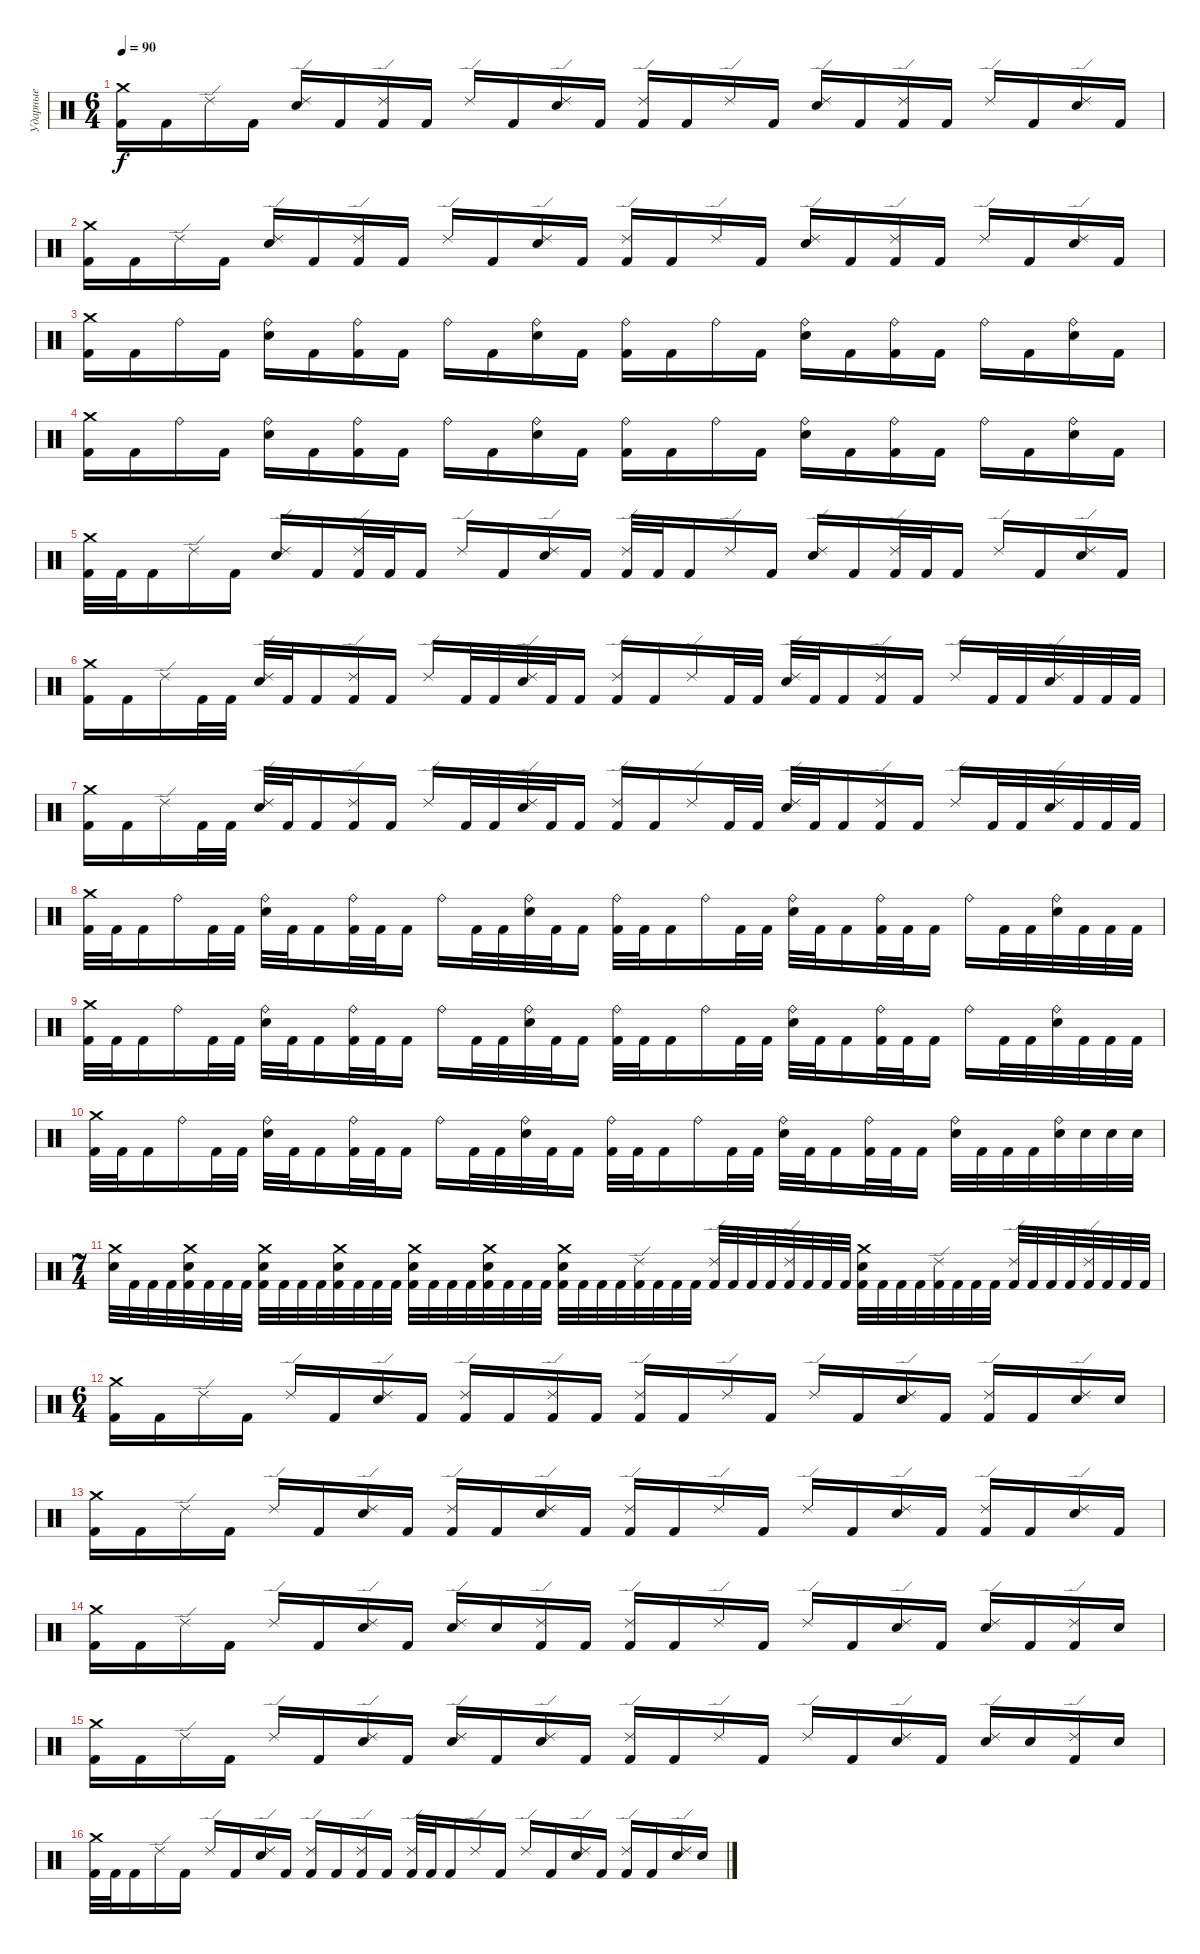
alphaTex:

\track ("Ударные" "Ударные") {instrument percussion}
\staff {score}
\articulation defaults
\ts (6 4)
\tempo 90
\clef neutral
\ks c
("Crash medium (hit)" "Kick (hit) 2").16{dy f} "Kick (hit) 2".16 "Ride (edge) 2".16 "Kick (hit) 2".16 ("Ride (edge) 2" "Electric Snare (hit)").16 "Kick (hit) 2".16 ("Ride (edge) 2" "Kick (hit) 2").16 "Kick (hit) 2".16 "Ride (edge) 2".16 "Kick (hit) 2".16 ("Ride (edge) 2" "Electric Snare (hit)").16 "Kick (hit) 2".16 ("Ride (edge) 2" "Kick (hit) 2").16 "Kick (hit) 2".16 "Ride (edge) 2".16 "Kick (hit) 2".16 ("Ride (edge) 2" "Electric Snare (hit)").16 "Kick (hit) 2".16 ("Ride (edge) 2" "Kick (hit) 2").16 "Kick (hit) 2".16 "Ride (edge) 2".16 "Kick (hit) 2".16 ("Ride (edge) 2" "Electric Snare (hit)").16 "Kick (hit) 2".16 |
("Crash medium (hit)" "Kick (hit) 2").16 "Kick (hit) 2".16 "Ride (edge) 2".16 "Kick (hit) 2".16 ("Ride (edge) 2" "Electric Snare (hit)").16 "Kick (hit) 2".16 ("Ride (edge) 2" "Kick (hit) 2").16 "Kick (hit) 2".16 "Ride (edge) 2".16 "Kick (hit) 2".16 ("Ride (edge) 2" "Electric Snare (hit)").16 "Kick (hit) 2".16 ("Ride (edge) 2" "Kick (hit) 2").16 "Kick (hit) 2".16 "Ride (edge) 2".16 "Kick (hit) 2".16 ("Ride (edge) 2" "Electric Snare (hit)").16 "Kick (hit) 2".16 ("Ride (edge) 2" "Kick (hit) 2").16 "Kick (hit) 2".16 "Ride (edge) 2".16 "Kick (hit) 2".16 ("Ride (edge) 2" "Electric Snare (hit)").16 "Kick (hit) 2".16 |
("Crash medium (hit)" "Kick (hit) 2").16 "Kick (hit) 2".16 "Ride (bell)".16 "Kick (hit) 2".16 ("Electric Snare (hit)" "Ride (bell)").16 "Kick (hit) 2".16 ("Kick (hit) 2" "Ride (bell)").16 "Kick (hit) 2".16 "Ride (bell)".16 "Kick (hit) 2".16 ("Electric Snare (hit)" "Ride (bell)").16 "Kick (hit) 2".16 ("Ride (bell)" "Kick (hit) 2").16 "Kick (hit) 2".16 "Ride (bell)".16 "Kick (hit) 2".16 ("Ride (bell)" "Electric Snare (hit)").16 "Kick (hit) 2".16 ("Kick (hit) 2" "Ride (bell)").16 "Kick (hit) 2".16 "Ride (bell)".16 "Kick (hit) 2".16 ("Electric Snare (hit)" "Ride (bell)").16 "Kick (hit) 2".16 |
("Crash medium (hit)" "Kick (hit) 2").16 "Kick (hit) 2".16 "Ride (bell)".16 "Kick (hit) 2".16 ("Electric Snare (hit)" "Ride (bell)").16 "Kick (hit) 2".16 ("Kick (hit) 2" "Ride (bell)").16 "Kick (hit) 2".16 "Ride (bell)".16 "Kick (hit) 2".16 ("Electric Snare (hit)" "Ride (bell)").16 "Kick (hit) 2".16 ("Ride (bell)" "Kick (hit) 2").16 "Kick (hit) 2".16 "Ride (bell)".16 "Kick (hit) 2".16 ("Ride (bell)" "Electric Snare (hit)").16 "Kick (hit) 2".16 ("Kick (hit) 2" "Ride (bell)").16 "Kick (hit) 2".16 "Ride (bell)".16 "Kick (hit) 2".16 ("Electric Snare (hit)" "Ride (bell)").16 "Kick (hit) 2".16 |
("Crash medium (hit)" "Kick (hit) 2").32 "Kick (hit) 2".32 "Kick (hit) 2".16 "Ride (edge) 2".16 "Kick (hit) 2".16 ("Ride (edge) 2" "Electric Snare (hit)").16 "Kick (hit) 2".16 ("Ride (edge) 2" "Kick (hit) 2").32 "Kick (hit) 2".32 "Kick (hit) 2".16 "Ride (edge) 2".16 "Kick (hit) 2".16 ("Ride (edge) 2" "Electric Snare (hit)").16 "Kick (hit) 2".16 ("Ride (edge) 2" "Kick (hit) 2").32 "Kick (hit) 2".32 "Kick (hit) 2".16 "Ride (edge) 2".16 "Kick (hit) 2".16 ("Ride (edge) 2" "Electric Snare (hit)").16 "Kick (hit) 2".16 ("Ride (edge) 2" "Kick (hit) 2").32 "Kick (hit) 2".32 "Kick (hit) 2".16 "Ride (edge) 2".16 "Kick (hit) 2".16 ("Ride (edge) 2" "Electric Snare (hit)").16 "Kick (hit) 2".16 |
("Crash medium (hit)" "Kick (hit) 2").16 "Kick (hit) 2".16 "Ride (edge) 2".16 "Kick (hit) 2".32 "Kick (hit) 2".32 ("Ride (edge) 2" "Electric Snare (hit)").32 "Kick (hit) 2".32 "Kick (hit) 2".16 ("Ride (edge) 2" "Kick (hit) 2").16 "Kick (hit) 2".16 "Ride (edge) 2".16 "Kick (hit) 2".32 "Kick (hit) 2".32 ("Ride (edge) 2" "Electric Snare (hit)").32 "Kick (hit) 2".32 "Kick (hit) 2".16 ("Ride (edge) 2" "Kick (hit) 2").16 "Kick (hit) 2".16 "Ride (edge) 2".16 "Kick (hit) 2".32 "Kick (hit) 2".32 ("Ride (edge) 2" "Electric Snare (hit)").32 "Kick (hit) 2".32 "Kick (hit) 2".16 ("Ride (edge) 2" "Kick (hit) 2").16 "Kick (hit) 2".16 "Ride (edge) 2".16 "Kick (hit) 2".32 "Kick (hit) 2".32 ("Ride (edge) 2" "Electric Snare (hit)").32 "Kick (hit) 2".32 "Kick (hit) 2".32 "Kick (hit) 2".32 |
("Crash medium (hit)" "Kick (hit) 2").16 "Kick (hit) 2".16 "Ride (edge) 2".16 "Kick (hit) 2".32 "Kick (hit) 2".32 ("Ride (edge) 2" "Electric Snare (hit)").32 "Kick (hit) 2".32 "Kick (hit) 2".16 ("Ride (edge) 2" "Kick (hit) 2").16 "Kick (hit) 2".16 "Ride (edge) 2".16 "Kick (hit) 2".32 "Kick (hit) 2".32 ("Ride (edge) 2" "Electric Snare (hit)").32 "Kick (hit) 2".32 "Kick (hit) 2".16 ("Ride (edge) 2" "Kick (hit) 2").16 "Kick (hit) 2".16 "Ride (edge) 2".16 "Kick (hit) 2".32 "Kick (hit) 2".32 ("Ride (edge) 2" "Electric Snare (hit)").32 "Kick (hit) 2".32 "Kick (hit) 2".16 ("Ride (edge) 2" "Kick (hit) 2").16 "Kick (hit) 2".16 "Ride (edge) 2".16 "Kick (hit) 2".32 "Kick (hit) 2".32 ("Ride (edge) 2" "Electric Snare (hit)").32 "Kick (hit) 2".32 "Kick (hit) 2".32 "Kick (hit) 2".32 |
("Crash medium (hit)" "Kick (hit) 2").32 "Kick (hit) 2".32 "Kick (hit) 2".16 "Ride (bell)".16 "Kick (hit) 2".32 "Kick (hit) 2".32 ("Electric Snare (hit)" "Ride (bell)").32 "Kick (hit) 2".32 "Kick (hit) 2".16 ("Kick (hit) 2" "Ride (bell)").32 "Kick (hit) 2".32 "Kick (hit) 2".16 "Ride (bell)".16 "Kick (hit) 2".32 "Kick (hit) 2".32 ("Electric Snare (hit)" "Ride (bell)").32 "Kick (hit) 2".32 "Kick (hit) 2".16 ("Ride (bell)" "Kick (hit) 2").32 "Kick (hit) 2".32 "Kick (hit) 2".16 "Ride (bell)".16 "Kick (hit) 2".32 "Kick (hit) 2".32 ("Ride (bell)" "Electric Snare (hit)").32 "Kick (hit) 2".32 "Kick (hit) 2".16 ("Kick (hit) 2" "Ride (bell)").32 "Kick (hit) 2".32 "Kick (hit) 2".16 "Ride (bell)".16 "Kick (hit) 2".32 "Kick (hit) 2".32 ("Electric Snare (hit)" "Ride (bell)").32 "Kick (hit) 2".32 "Kick (hit) 2".32 "Kick (hit) 2".32 |
("Crash medium (hit)" "Kick (hit) 2").32 "Kick (hit) 2".32 "Kick (hit) 2".16 "Ride (bell)".16 "Kick (hit) 2".32 "Kick (hit) 2".32 ("Electric Snare (hit)" "Ride (bell)").32 "Kick (hit) 2".32 "Kick (hit) 2".16 ("Kick (hit) 2" "Ride (bell)").32 "Kick (hit) 2".32 "Kick (hit) 2".16 "Ride (bell)".16 "Kick (hit) 2".32 "Kick (hit) 2".32 ("Electric Snare (hit)" "Ride (bell)").32 "Kick (hit) 2".32 "Kick (hit) 2".16 ("Ride (bell)" "Kick (hit) 2").32 "Kick (hit) 2".32 "Kick (hit) 2".16 "Ride (bell)".16 "Kick (hit) 2".32 "Kick (hit) 2".32 ("Ride (bell)" "Electric Snare (hit)").32 "Kick (hit) 2".32 "Kick (hit) 2".16 ("Kick (hit) 2" "Ride (bell)").32 "Kick (hit) 2".32 "Kick (hit) 2".16 "Ride (bell)".16 "Kick (hit) 2".32 "Kick (hit) 2".32 ("Electric Snare (hit)" "Ride (bell)").32 "Kick (hit) 2".32 "Kick (hit) 2".32 "Kick (hit) 2".32 |
("Crash medium (hit)" "Kick (hit) 2").32 "Kick (hit) 2".32 "Kick (hit) 2".16 "Ride (bell)".16 "Kick (hit) 2".32 "Kick (hit) 2".32 ("Electric Snare (hit)" "Ride (bell)").32 "Kick (hit) 2".32 "Kick (hit) 2".16 ("Kick (hit) 2" "Ride (bell)").32 "Kick (hit) 2".32 "Kick (hit) 2".16 "Ride (bell)".16 "Kick (hit) 2".32 "Kick (hit) 2".32 ("Electric Snare (hit)" "Ride (bell)").32 "Kick (hit) 2".32 "Kick (hit) 2".16 ("Ride (bell)" "Kick (hit) 2").32 "Kick (hit) 2".32 "Kick (hit) 2".16 "Ride (bell)".16 "Kick (hit) 2".32 "Kick (hit) 2".32 ("Ride (bell)" "Electric Snare (hit)").32 "Kick (hit) 2".32 "Kick (hit) 2".16 ("Kick (hit) 2" "Ride (bell)").32 "Kick (hit) 2".32 "Kick (hit) 2".16 ("Electric Snare (hit)" "Ride (bell)").32 "Kick (hit) 2".32 "Kick (hit) 2".32 "Kick (hit) 2".32 ("Electric Snare (hit)" "Ride (bell)").32 "Electric Snare (hit)".32 "Electric Snare (hit)".32 "Electric Snare (hit)".32 |
\ts (7 4)
("Crash medium (hit)" "Electric Snare (hit)").32 "Kick (hit) 2".32 "Kick (hit) 2".32 "Kick (hit) 2".32 ("Kick (hit) 2" "Electric Snare (hit)" "Crash medium (hit)").32 "Kick (hit) 2".32 "Kick (hit) 2".32 "Kick (hit) 2".32 ("Kick (hit) 2" "Crash medium (hit)" "Electric Snare (hit)").32 "Kick (hit) 2".32 "Kick (hit) 2".32 "Kick (hit) 2".32 ("Kick (hit) 2" "Electric Snare (hit)" "Crash medium (hit)").32 "Kick (hit) 2".32 "Kick (hit) 2".32 "Kick (hit) 2".32 ("Kick (hit) 2" "Crash medium (hit)" "Electric Snare (hit)").32 "Kick (hit) 2".32 "Kick (hit) 2".32 "Kick (hit) 2".32 ("Kick (hit) 2" "Electric Snare (hit)" "Crash medium (hit)").32 "Kick (hit) 2".32 "Kick (hit) 2".32 "Kick (hit) 2".32 ("Kick (hit) 2" "Crash medium (hit)" "Electric Snare (hit)").32 "Kick (hit) 2".32 "Kick (hit) 2".32 "Kick (hit) 2".32 ("Ride (edge) 2" "Kick (hit) 2").32 "Kick (hit) 2".32 "Kick (hit) 2".32 "Kick (hit) 2".32 ("Ride (edge) 2" "Kick (hit) 2").32 "Kick (hit) 2".32 "Kick (hit) 2".32 "Kick (hit) 2".32 ("Ride (edge) 2" "Kick (hit) 2").32 "Kick (hit) 2".32 "Kick (hit) 2".32 "Kick (hit) 2".32 ("Kick (hit) 2" "Crash medium (hit)" "Electric Snare (hit)").32 "Kick (hit) 2".32 "Kick (hit) 2".32 "Kick (hit) 2".32 ("Ride (edge) 2" "Kick (hit) 2").32 "Kick (hit) 2".32 "Kick (hit) 2".32 "Kick (hit) 2".32 ("Ride (edge) 2" "Kick (hit) 2").32 "Kick (hit) 2".32 "Kick (hit) 2".32 "Kick (hit) 2".32 ("Ride (edge) 2" "Kick (hit) 2").32 "Kick (hit) 2".32 "Kick (hit) 2".32 "Kick (hit) 2".32 |
\ts (6 4)
("Crash medium (hit)" "Kick (hit) 2").16 "Kick (hit) 2".16 "Ride (edge) 2".16 "Kick (hit) 2".16 "Ride (edge) 2".16 "Kick (hit) 2".16 ("Ride (edge) 2" "Electric Snare (hit)").16 "Kick (hit) 2".16 ("Ride (edge) 2" "Kick (hit) 2").16 "Kick (hit) 2".16 ("Ride (edge) 2" "Kick (hit) 2").16 "Kick (hit) 2".16 ("Ride (edge) 2" "Kick (hit) 2").16 "Kick (hit) 2".16 "Ride (edge) 2".16 "Kick (hit) 2".16 "Ride (edge) 2".16 "Kick (hit) 2".16 ("Ride (edge) 2" "Electric Snare (hit)").16 "Kick (hit) 2".16 ("Ride (edge) 2" "Kick (hit) 2").16 "Kick (hit) 2".16 ("Ride (edge) 2" "Electric Snare (hit)").16 "Electric Snare (hit)".16 |
("Crash medium (hit)" "Kick (hit) 2").16 "Kick (hit) 2".16 "Ride (edge) 2".16 "Kick (hit) 2".16 "Ride (edge) 2".16 "Kick (hit) 2".16 ("Ride (edge) 2" "Electric Snare (hit)").16 "Kick (hit) 2".16 ("Ride (edge) 2" "Kick (hit) 2").16 "Kick (hit) 2".16 ("Ride (edge) 2" "Electric Snare (hit)").16 "Kick (hit) 2".16 ("Ride (edge) 2" "Kick (hit) 2").16 "Kick (hit) 2".16 "Ride (edge) 2".16 "Kick (hit) 2".16 "Ride (edge) 2".16 "Kick (hit) 2".16 ("Ride (edge) 2" "Electric Snare (hit)").16 "Kick (hit) 2".16 ("Ride (edge) 2" "Kick (hit) 2").16 "Kick (hit) 2".16 ("Ride (edge) 2" "Electric Snare (hit)").16 "Kick (hit) 2".16 |
("Crash medium (hit)" "Kick (hit) 2").16 "Kick (hit) 2".16 "Ride (edge) 2".16 "Kick (hit) 2".16 "Ride (edge) 2".16 "Kick (hit) 2".16 ("Ride (edge) 2" "Electric Snare (hit)").16 "Kick (hit) 2".16 ("Ride (edge) 2" "Electric Snare (hit)").16 "Electric Snare (hit)".16 ("Ride (edge) 2" "Kick (hit) 2").16 "Kick (hit) 2".16 ("Ride (edge) 2" "Kick (hit) 2").16 "Kick (hit) 2".16 "Ride (edge) 2".16 "Kick (hit) 2".16 "Ride (edge) 2".16 "Kick (hit) 2".16 ("Ride (edge) 2" "Electric Snare (hit)").16 "Kick (hit) 2".16 ("Ride (edge) 2" "Electric Snare (hit)").16 "Kick (hit) 2".16 ("Ride (edge) 2" "Kick (hit) 2").16 "Electric Snare (hit)".16 |
("Crash medium (hit)" "Kick (hit) 2").16 "Kick (hit) 2".16 "Ride (edge) 2".16 "Kick (hit) 2".16 "Ride (edge) 2".16 "Kick (hit) 2".16 ("Ride (edge) 2" "Electric Snare (hit)").16 "Kick (hit) 2".16 ("Ride (edge) 2" "Electric Snare (hit)").16 "Kick (hit) 2".16 ("Ride (edge) 2" "Electric Snare (hit)").16 "Kick (hit) 2".16 ("Ride (edge) 2" "Kick (hit) 2").16 "Kick (hit) 2".16 "Ride (edge) 2".16 "Kick (hit) 2".16 "Ride (edge) 2".16 "Kick (hit) 2".16 ("Ride (edge) 2" "Electric Snare (hit)").16 "Kick (hit) 2".16 ("Ride (edge) 2" "Electric Snare (hit)").16 "Electric Snare (hit)".16 ("Ride (edge) 2" "Kick (hit) 2").16 "Electric Snare (hit)".16 |
("Crash medium (hit)" "Kick (hit) 2").32 "Kick (hit) 2".32 "Kick (hit) 2".16 "Ride (edge) 2".16 "Kick (hit) 2".16 "Ride (edge) 2".16 "Kick (hit) 2".16 ("Ride (edge) 2" "Electric Snare (hit)").16 "Kick (hit) 2".16 ("Ride (edge) 2" "Kick (hit) 2").16 "Kick (hit) 2".16 ("Ride (edge) 2" "Kick (hit) 2").16 "Kick (hit) 2".16 ("Ride (edge) 2" "Kick (hit) 2").32 "Kick (hit) 2".32 "Kick (hit) 2".16 "Ride (edge) 2".16 "Kick (hit) 2".16 "Ride (edge) 2".16 "Kick (hit) 2".16 ("Ride (edge) 2" "Electric Snare (hit)").16 "Kick (hit) 2".16 ("Ride (edge) 2" "Kick (hit) 2").16 "Kick (hit) 2".16 ("Ride (edge) 2" "Electric Snare (hit)").16 "Electric Snare (hit)".16
